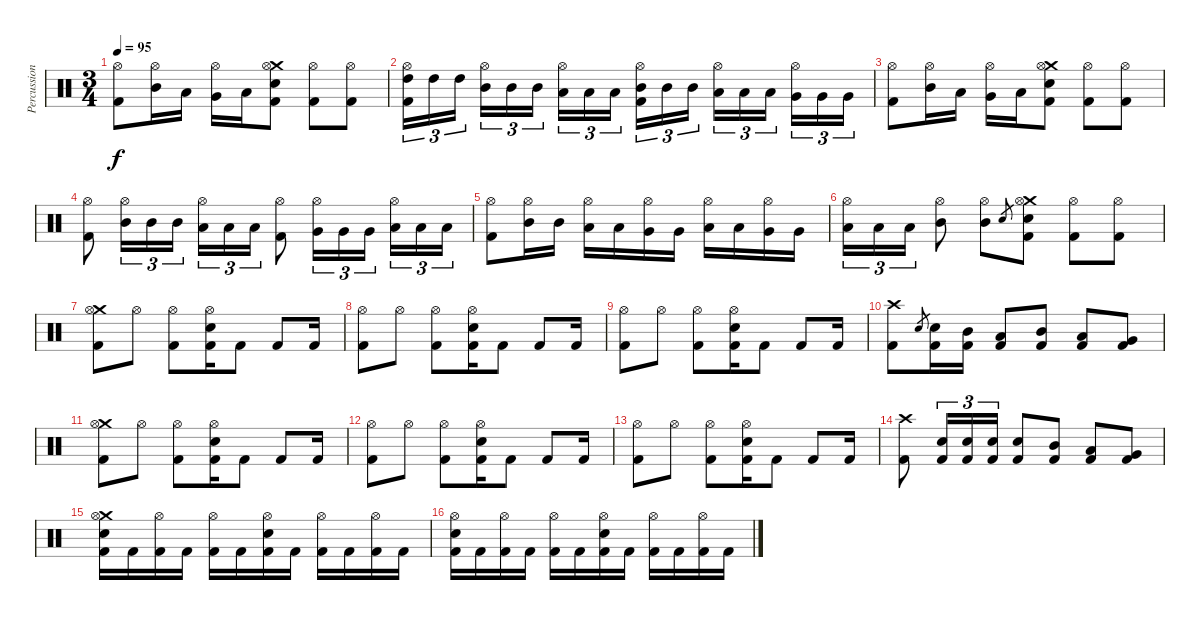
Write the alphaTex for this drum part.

\track ("Percussion" "Percussion") {instrument percussion}
\staff {score}
\articulation defaults
\ts (3 4)
\tempo 95
\clef neutral
\ks c
("Hi-Hat (open)" "Kick (hit) 2").8{dy f} ("Hi-Hat (open)" "Mid Tom (hit)").16 "Low Tom (hit)".16 ("Hi-Hat (open)" "Very Low Tom (hit)").16 "Low Floor Tom (hit)".16 ("Crash medium (hit)" "Hi-Hat (open)" "Electric Snare (hit)" "Kick (hit) 2").8 ("Hi-Hat (open)" "Kick (hit) 2").8 ("Hi-Hat (open)" "Kick (hit) 2").8 |
("Hi-Hat (open)" "High Tom (hit)" "Kick (hit) 2").16{tu (3 2)} "High Tom (hit)".16{tu (3 2)} "High Tom (hit)".16{tu (3 2)} ("Hi-Hat (open)" "Mid Tom (hit)").16{tu (3 2)} "Mid Tom (hit)".16{tu (3 2)} "Mid Tom (hit)".16{tu (3 2)} ("Hi-Hat (open)" "Low Tom (hit)").16{tu (3 2)} "Low Tom (hit)".16{tu (3 2)} "Low Tom (hit)".16{tu (3 2)} ("Hi-Hat (open)" "Mid Tom (hit)" "Kick (hit) 2").16{tu (3 2)} "Mid Tom (hit)".16{tu (3 2)} "Mid Tom (hit)".16{tu (3 2)} ("Hi-Hat (open)" "Low Tom (hit)").16{tu (3 2)} "Low Tom (hit)".16{tu (3 2)} "Low Tom (hit)".16{tu (3 2)} ("Hi-Hat (open)" "Very Low Tom (hit)").16{tu (3 2)} "Very Low Tom (hit)".16{tu (3 2)} "Very Low Tom (hit)".16{tu (3 2)} |
("Hi-Hat (open)" "Kick (hit) 2").8 ("Hi-Hat (open)" "Mid Tom (hit)").16 "Low Tom (hit)".16 ("Hi-Hat (open)" "Very Low Tom (hit)").16 "Low Floor Tom (hit)".16 ("Crash medium (hit)" "Hi-Hat (open)" "Electric Snare (hit)" "Kick (hit) 2").8 ("Hi-Hat (open)" "Kick (hit) 2").8 ("Hi-Hat (open)" "Kick (hit) 2").8 |
("Hi-Hat (open)" "Kick (hit) 2").8 ("Hi-Hat (open)" "Mid Tom (hit)").16{tu (3 2)} "Mid Tom (hit)".16{tu (3 2)} "Mid Tom (hit)".16{tu (3 2)} ("Hi-Hat (open)" "Low Tom (hit)").16{tu (3 2)} "Low Tom (hit)".16{tu (3 2)} "Low Tom (hit)".16{tu (3 2)} ("Hi-Hat (open)" "Kick (hit) 2").8 ("Hi-Hat (open)" "Very Low Tom (hit)").16{tu (3 2)} "Very Low Tom (hit)".16{tu (3 2)} "Very Low Tom (hit)".16{tu (3 2)} ("Hi-Hat (open)" "Low Floor Tom (hit)").16{tu (3 2)} "Low Floor Tom (hit)".16{tu (3 2)} "Low Floor Tom (hit)".16{tu (3 2)} |
("Hi-Hat (open)" "Kick (hit) 2").8 ("Hi-Hat (open)" "Mid Tom (hit)").16 "Mid Tom (hit)".16 ("Hi-Hat (open)" "Low Tom (hit)").16 "Low Tom (hit)".16 ("Hi-Hat (open)" "Very Low Tom (hit)").16 "Very Low Tom (hit)".16 ("Hi-Hat (open)" "Low Floor Tom (hit)").16 "Low Floor Tom (hit)".16 ("Hi-Hat (open)" "Very Low Tom (hit)").16 "Very Low Tom (hit)".16 |
("Hi-Hat (open)" "Low Tom (hit)").16{tu (3 2)} "Low Tom (hit)".16{tu (3 2)} "Low Tom (hit)".16{tu (3 2)} ("Hi-Hat (open)" "Mid Tom (hit)").8 ("Hi-Hat (open)" "Mid Tom (hit)").8 "Electric Snare (hit)".8{gr} ("Crash medium (hit)" "Hi-Hat (open)" "Electric Snare (hit)" "Kick (hit) 2").8 ("Hi-Hat (open)" "Kick (hit) 2").8 ("Hi-Hat (open)" "Kick (hit) 2").8 |
("Crash medium (hit)" "Hi-Hat (open)" "Kick (hit) 2").8 "Hi-Hat (open)".8 ("Hi-Hat (open)" "Kick (hit) 2").8 ("Hi-Hat (open)" "Electric Snare (hit)" "Kick (hit) 2").16 "Kick (hit) 2".8 "Kick (hit) 2".8 "Kick (hit) 2".16 |
("Hi-Hat (open)" "Kick (hit) 2").8 "Hi-Hat (open)".8 ("Hi-Hat (open)" "Kick (hit) 2").8 ("Hi-Hat (open)" "Electric Snare (hit)" "Kick (hit) 2").16 "Kick (hit) 2".8 "Kick (hit) 2".8 "Kick (hit) 2".16 |
("Hi-Hat (open)" "Kick (hit) 2").8 "Hi-Hat (open)".8 ("Hi-Hat (open)" "Kick (hit) 2").8 ("Hi-Hat (open)" "Electric Snare (hit)" "Kick (hit) 2").16 "Kick (hit) 2".8 "Kick (hit) 2".8 "Kick (hit) 2".16 |
("Crash high (hit)" "Kick (hit) 2").8 "Electric Snare (hit)".8{gr} ("Electric Snare (hit)" "Kick (hit) 2").16 ("Mid Tom (hit)" "Kick (hit) 2").16 ("Low Tom (hit)" "Kick (hit) 2").8 ("Mid Tom (hit)" "Kick (hit) 2").8 ("Low Tom (hit)" "Kick (hit) 2").8 ("Very Low Tom (hit)" "Kick (hit) 2").8 |
("Crash medium (hit)" "Hi-Hat (open)" "Kick (hit) 2").8 "Hi-Hat (open)".8 ("Hi-Hat (open)" "Kick (hit) 2").8 ("Hi-Hat (open)" "Electric Snare (hit)" "Kick (hit) 2").16 "Kick (hit) 2".8 "Kick (hit) 2".8 "Kick (hit) 2".16 |
("Hi-Hat (open)" "Kick (hit) 2").8 "Hi-Hat (open)".8 ("Hi-Hat (open)" "Kick (hit) 2").8 ("Hi-Hat (open)" "Electric Snare (hit)" "Kick (hit) 2").16 "Kick (hit) 2".8 "Kick (hit) 2".8 "Kick (hit) 2".16 |
("Hi-Hat (open)" "Kick (hit) 2").8 "Hi-Hat (open)".8 ("Hi-Hat (open)" "Kick (hit) 2").8 ("Hi-Hat (open)" "Electric Snare (hit)" "Kick (hit) 2").16 "Kick (hit) 2".8 "Kick (hit) 2".8 "Kick (hit) 2".16 |
("Crash high (hit)" "Kick (hit) 2").8 ("Electric Snare (hit)" "Kick (hit) 2").16{tu (3 2)} ("Electric Snare (hit)" "Kick (hit) 2").16{tu (3 2)} ("Electric Snare (hit)" "Kick (hit) 2").16{tu (3 2)} ("Electric Snare (hit)" "Kick (hit) 2").8 ("Mid Tom (hit)" "Kick (hit) 2").8 ("Low Tom (hit)" "Kick (hit) 2").8 ("Very Low Tom (hit)" "Kick (hit) 2").8 |
("Crash medium (hit)" "Hi-Hat (open)" "Electric Snare (hit)" "Kick (hit) 2").16 "Kick (hit) 2".16 ("Hi-Hat (open)" "Kick (hit) 2").16 "Kick (hit) 2".16 ("Hi-Hat (open)" "Kick (hit) 2").16 "Kick (hit) 2".16 ("Hi-Hat (open)" "Electric Snare (hit)" "Kick (hit) 2").16 "Kick (hit) 2".16 ("Hi-Hat (open)" "Kick (hit) 2").16 "Kick (hit) 2".16 ("Hi-Hat (open)" "Kick (hit) 2").16 "Kick (hit) 2".16 |
("Hi-Hat (open)" "Electric Snare (hit)" "Kick (hit) 2").16 "Kick (hit) 2".16 ("Hi-Hat (open)" "Kick (hit) 2").16 "Kick (hit) 2".16 ("Hi-Hat (open)" "Kick (hit) 2").16 "Kick (hit) 2".16 ("Hi-Hat (open)" "Electric Snare (hit)" "Kick (hit) 2").16 "Kick (hit) 2".16 ("Hi-Hat (open)" "Kick (hit) 2").16 "Kick (hit) 2".16 ("Hi-Hat (open)" "Kick (hit) 2").16 "Kick (hit) 2".16
